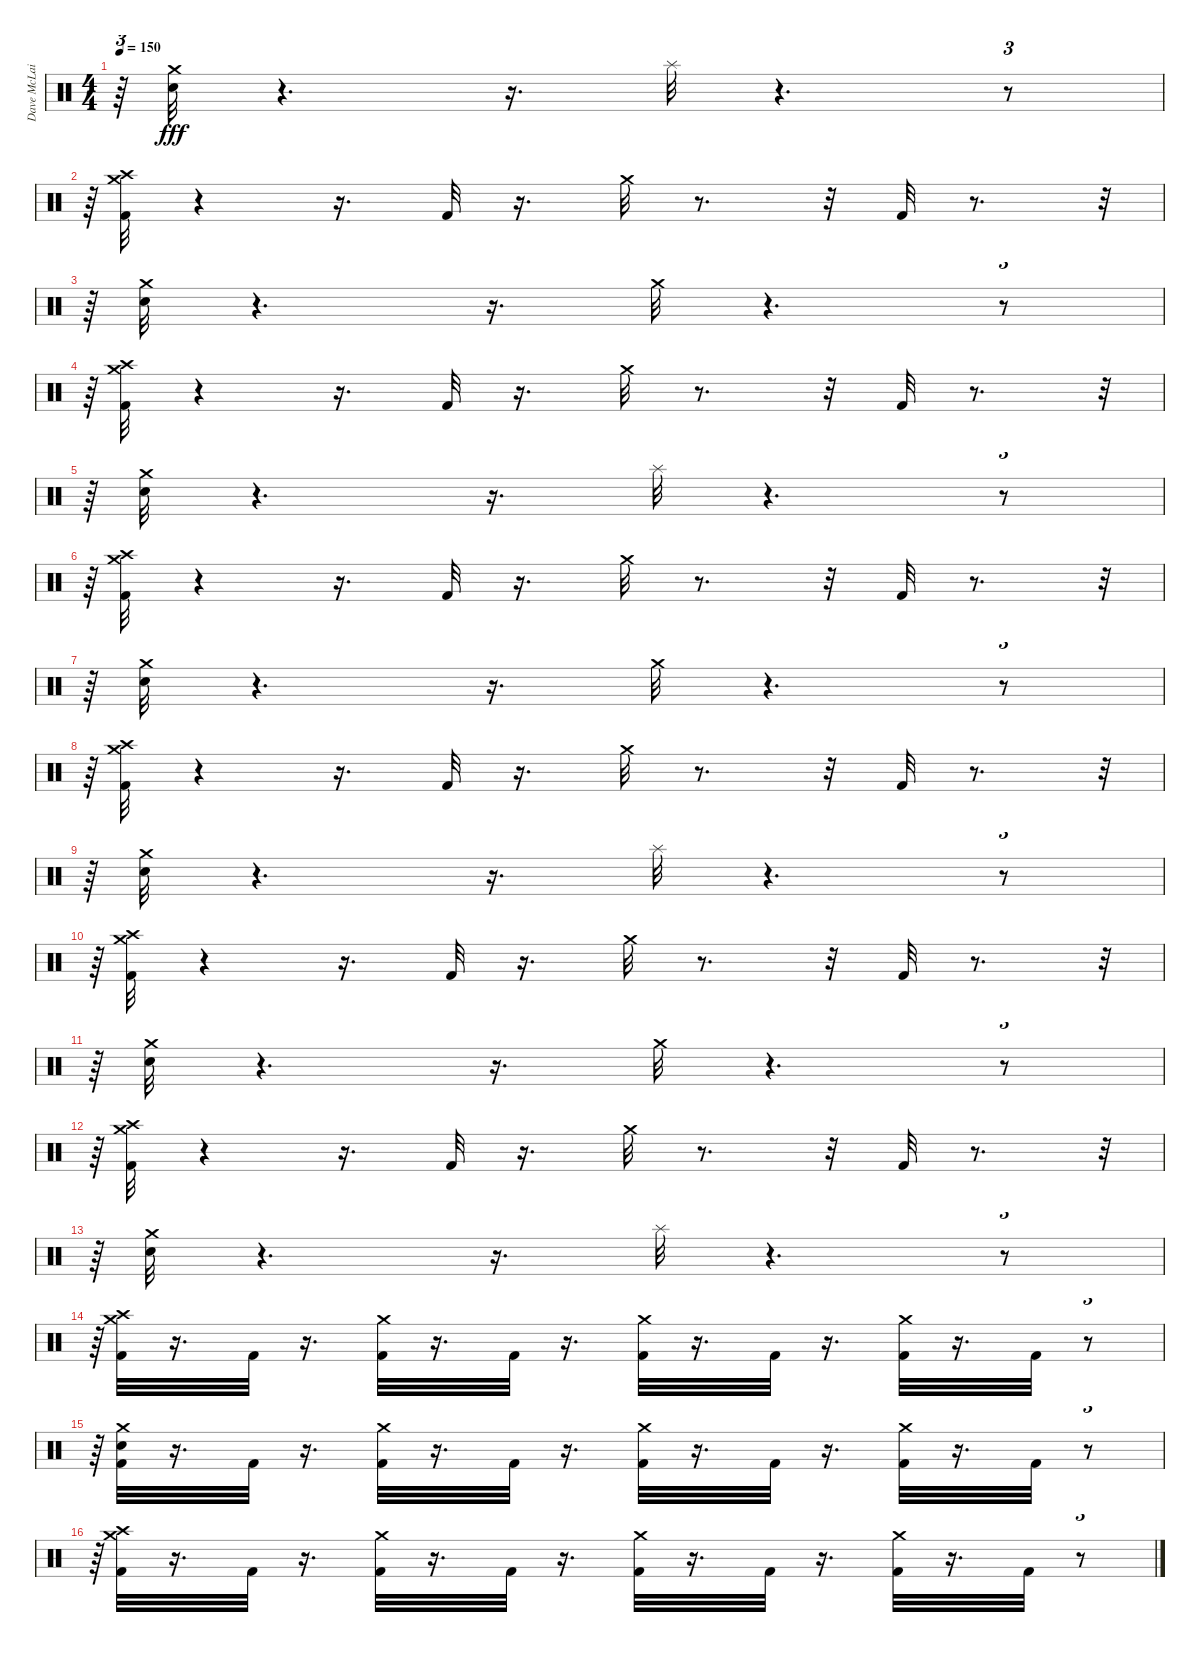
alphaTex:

\track ("Dave McLain" "Dave McLai") {instrument percussion}
\staff {score}
\articulation defaults
\ts (4 4)
\tempo 150
\clef neutral
\ks c
r.64{tu (3 2) dy fff} ("Crash medium (hit)" "Snare (hit) 2").32 r.4{d} r.16{d} "Splash (hit)".32 r.4{d} r.8{tu (3 2)} |
r.64{tu (3 2)} ("Crash medium (hit)" "Crash high (hit)" "Kick (hit) 2").32 r.4 r.16{d} "Kick (hit) 2".32 r.16{d} "Crash medium (hit)".32 r.8{d} r.32 "Kick (hit) 2".32 r.8{d} r.32{tu (3 2)} |
r.64{tu (3 2)} ("Crash medium (hit)" "Snare (hit) 2").32 r.4{d} r.16{d} "Crash medium (hit)".32 r.4{d} r.8{tu (3 2)} |
r.64{tu (3 2)} ("Crash high (hit)" "Crash medium (hit)" "Kick (hit) 2").32 r.4 r.16{d} "Kick (hit) 2".32 r.16{d} "Crash medium (hit)".32 r.8{d} r.32 "Kick (hit) 2".32 r.8{d} r.32{tu (3 2)} |
r.64{tu (3 2)} ("Crash medium (hit)" "Snare (hit) 2").32 r.4{d} r.16{d} "Splash (hit)".32 r.4{d} r.8{tu (3 2)} |
r.64{tu (3 2)} ("Crash medium (hit)" "Crash high (hit)" "Kick (hit) 2").32 r.4 r.16{d} "Kick (hit) 2".32 r.16{d} "Crash medium (hit)".32 r.8{d} r.32 "Kick (hit) 2".32 r.8{d} r.32{tu (3 2)} |
r.64{tu (3 2)} ("Crash medium (hit)" "Snare (hit) 2").32 r.4{d} r.16{d} "Crash medium (hit)".32 r.4{d} r.8{tu (3 2)} |
r.64{tu (3 2)} ("Crash high (hit)" "Crash medium (hit)" "Kick (hit) 2").32 r.4 r.16{d} "Kick (hit) 2".32 r.16{d} "Crash medium (hit)".32 r.8{d} r.32 "Kick (hit) 2".32 r.8{d} r.32{tu (3 2)} |
r.64{tu (3 2)} ("Crash medium (hit)" "Snare (hit) 2").32 r.4{d} r.16{d} "Splash (hit)".32 r.4{d} r.8{tu (3 2)} |
r.64{tu (3 2)} ("Crash medium (hit)" "Crash high (hit)" "Kick (hit) 2").32 r.4 r.16{d} "Kick (hit) 2".32 r.16{d} "Crash medium (hit)".32 r.8{d} r.32 "Kick (hit) 2".32 r.8{d} r.32{tu (3 2)} |
r.64{tu (3 2)} ("Crash medium (hit)" "Snare (hit) 2").32 r.4{d} r.16{d} "Crash medium (hit)".32 r.4{d} r.8{tu (3 2)} |
r.64{tu (3 2)} ("Crash high (hit)" "Crash medium (hit)" "Kick (hit) 2").32 r.4 r.16{d} "Kick (hit) 2".32 r.16{d} "Crash medium (hit)".32 r.8{d} r.32 "Kick (hit) 2".32 r.8{d} r.32{tu (3 2)} |
r.64{tu (3 2)} ("Crash medium (hit)" "Snare (hit) 2").32 r.4{d} r.16{d} "Splash (hit)".32 r.4{d} r.8{tu (3 2)} |
r.64{tu (3 2)} ("Crash medium (hit)" "Crash high (hit)" "Kick (hit) 2").32 r.16{d} "Kick (hit) 2".32 r.16{d} ("Crash medium (hit)" "Kick (hit) 2").32 r.16{d} "Kick (hit) 2".32 r.16{d} ("Kick (hit) 2" "Crash medium (hit)").32 r.16{d} "Kick (hit) 2".32 r.16{d} ("Crash medium (hit)" "Kick (hit) 2").32 r.16{d} "Kick (hit) 2".32 r.8{tu (3 2)} |
r.64{tu (3 2)} ("Kick (hit) 2" "Crash medium (hit)" "Snare (hit) 2").32 r.16{d} "Kick (hit) 2".32 r.16{d} ("Crash medium (hit)" "Kick (hit) 2").32 r.16{d} "Kick (hit) 2".32 r.16{d} ("Kick (hit) 2" "Crash medium (hit)").32 r.16{d} "Kick (hit) 2".32 r.16{d} ("Crash medium (hit)" "Kick (hit) 2").32 r.16{d} "Kick (hit) 2".32 r.8{tu (3 2)} |
r.64{tu (3 2)} ("Crash high (hit)" "Crash medium (hit)" "Kick (hit) 2").32 r.16{d} "Kick (hit) 2".32 r.16{d} ("Crash medium (hit)" "Kick (hit) 2").32 r.16{d} "Kick (hit) 2".32 r.16{d} ("Kick (hit) 2" "Crash medium (hit)").32 r.16{d} "Kick (hit) 2".32 r.16{d} ("Crash medium (hit)" "Kick (hit) 2").32 r.16{d} "Kick (hit) 2".32 r.8{tu (3 2)}
